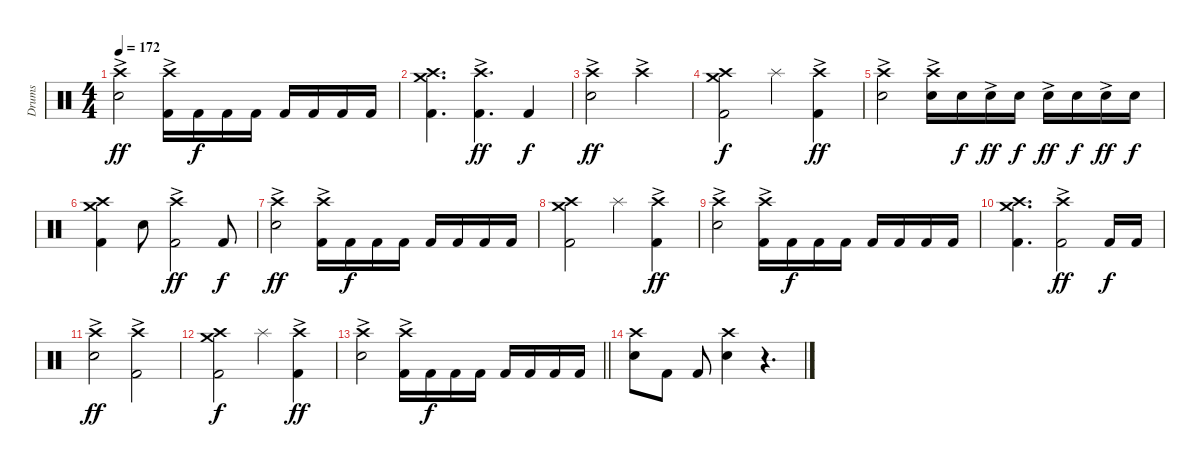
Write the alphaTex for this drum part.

\track ("Drums" "Drums") {instrument percussion}
\staff {score}
\articulation defaults
\ts (4 4)
\tempo 172
\clef neutral
\ks c
("Crash high (hit)"{ac} "Electric Snare (hit)").2{dy ff} ("Crash high (hit)"{ac} "Kick (hit) 2").16 "Kick (hit) 2".16{dy f} "Kick (hit) 2".16 "Kick (hit) 2".16 "Kick (hit) 2".16 "Kick (hit) 2".16 "Kick (hit) 2".16 "Kick (hit) 2".16 |
("Crash medium (hit)" "Crash high (hit)" "Kick (hit) 2").4{d} ("Crash high (hit)"{ac} "Kick (hit) 2").4{d dy ff} "Kick (hit) 2".4{dy f} |
("Crash high (hit)"{ac} "Electric Snare (hit)").2{dy ff} "Crash high (hit)"{ac}.2 |
("Crash medium (hit)" "Crash high (hit)" "Kick (hit) 2").2{dy f} "Splash (hit)".4 ("Crash high (hit)"{ac} "Kick (hit) 2").4{dy ff} |
("Crash high (hit)"{ac} "Electric Snare (hit)").2 ("Crash high (hit)"{ac} "Electric Snare (hit)"{ac}).16 "Electric Snare (hit)".16{dy f} "Electric Snare (hit)"{ac}.16{dy ff} "Electric Snare (hit)".16{dy f} "Electric Snare (hit)"{ac}.16{dy ff} "Electric Snare (hit)".16{dy f} "Electric Snare (hit)"{ac}.16{dy ff} "Electric Snare (hit)".16{dy f} |
("Crash medium (hit)" "Crash high (hit)" "Kick (hit) 2").4 "Electric Snare (hit)".8 ("Crash high (hit)"{ac} "Kick (hit) 2").2{dy ff} "Kick (hit) 2".8{dy f} |
("Crash high (hit)"{ac} "Electric Snare (hit)").2{dy ff} ("Crash high (hit)"{ac} "Kick (hit) 2").16 "Kick (hit) 2".16{dy f} "Kick (hit) 2".16 "Kick (hit) 2".16 "Kick (hit) 2".16 "Kick (hit) 2".16 "Kick (hit) 2".16 "Kick (hit) 2".16 |
("Crash medium (hit)" "Crash high (hit)" "Kick (hit) 2").2 "Splash (hit)".4 ("Crash high (hit)"{ac} "Kick (hit) 2").4{dy ff} |
("Crash high (hit)"{ac} "Electric Snare (hit)").2 ("Crash high (hit)"{ac} "Kick (hit) 2").16 "Kick (hit) 2".16{dy f} "Kick (hit) 2".16 "Kick (hit) 2".16 "Kick (hit) 2".16 "Kick (hit) 2".16 "Kick (hit) 2".16 "Kick (hit) 2".16 |
("Crash medium (hit)" "Crash high (hit)" "Kick (hit) 2").4{d} ("Crash high (hit)"{ac} "Kick (hit) 2").2{dy ff} "Kick (hit) 2".16{dy f} "Kick (hit) 2".16 |
("Crash high (hit)"{ac} "Electric Snare (hit)").2{dy ff} ("Crash high (hit)"{ac} "Kick (hit) 2").2 |
("Crash medium (hit)" "Crash high (hit)" "Kick (hit) 2").2{dy f} "Splash (hit)".4 ("Crash high (hit)"{ac} "Kick (hit) 2").4{dy ff} |
\barLineRight lightlight
("Crash high (hit)"{ac} "Electric Snare (hit)").2 ("Crash high (hit)"{ac} "Kick (hit) 2").16 "Kick (hit) 2".16{dy f} "Kick (hit) 2".16 "Kick (hit) 2".16 "Kick (hit) 2".16 "Kick (hit) 2".16 "Kick (hit) 2".16 "Kick (hit) 2".16 |
\section ("" "")
("Crash high (hit)" "Electric Snare (hit)").8 "Kick (hit) 2".8 "Kick (hit) 2".8 ("Crash high (hit)" "Electric Snare (hit)").4 r.4{d volume 0}
